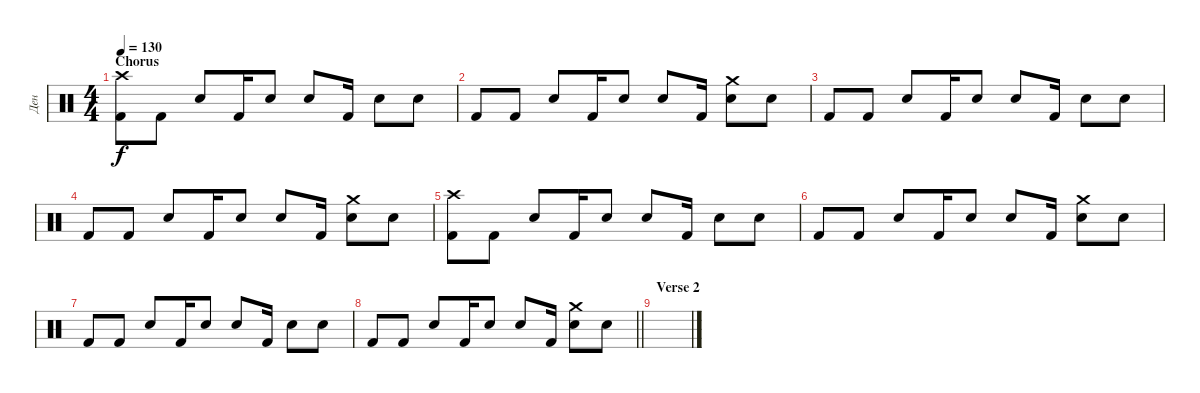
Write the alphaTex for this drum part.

\track ("Ден" "Ден") {instrument percussion}
\staff {score}
\articulation defaults
\ts (4 4)
\section ("" "Chorus")
\tempo 130
\clef neutral
\ks c
("Crash high (hit)" "Kick (hit) 2").8{dy f} "Kick (hit) 2".8 "Snare (hit) 2".8 "Kick (hit) 2".16 "Snare (hit) 2".8 "Snare (hit) 2".8 "Kick (hit) 2".16 "Snare (hit) 2".8 "Snare (hit)".8 |
"Kick (hit) 2".8 "Kick (hit) 2".8 "Snare (hit) 2".8 "Kick (hit) 2".16 "Snare (hit) 2".8 "Snare (hit) 2".8 "Kick (hit) 2".16 ("Crash medium (hit)" "Snare (hit) 2").8 "Snare (hit)".8 |
"Kick (hit) 2".8 "Kick (hit) 2".8 "Snare (hit) 2".8 "Kick (hit) 2".16 "Snare (hit) 2".8 "Snare (hit) 2".8 "Kick (hit) 2".16 "Snare (hit) 2".8 "Snare (hit)".8 |
"Kick (hit) 2".8 "Kick (hit) 2".8 "Snare (hit) 2".8 "Kick (hit) 2".16 "Snare (hit) 2".8 "Snare (hit) 2".8 "Kick (hit) 2".16 ("Crash medium (hit)" "Snare (hit) 2").8 "Snare (hit)".8 |
("Crash high (hit)" "Kick (hit) 2").8 "Kick (hit) 2".8 "Snare (hit) 2".8 "Kick (hit) 2".16 "Snare (hit) 2".8 "Snare (hit) 2".8 "Kick (hit) 2".16 "Snare (hit) 2".8 "Snare (hit)".8 |
"Kick (hit) 2".8 "Kick (hit) 2".8 "Snare (hit) 2".8 "Kick (hit) 2".16 "Snare (hit) 2".8 "Snare (hit) 2".8 "Kick (hit) 2".16 ("Crash medium (hit)" "Snare (hit) 2").8 "Snare (hit)".8 |
"Kick (hit) 2".8 "Kick (hit) 2".8 "Snare (hit) 2".8 "Kick (hit) 2".16 "Snare (hit) 2".8 "Snare (hit) 2".8 "Kick (hit) 2".16 "Snare (hit) 2".8 "Snare (hit)".8 |
\barLineRight lightlight "Kick (hit) 2".8 "Kick (hit) 2".8 "Snare (hit) 2".8 "Kick (hit) 2".16 "Snare (hit) 2".8 "Snare (hit) 2".8 "Kick (hit) 2".16
("Crash medium (hit)" "Snare (hit) 2").8 "Snare (hit)".8 |
\section ("" "Verse 2")
